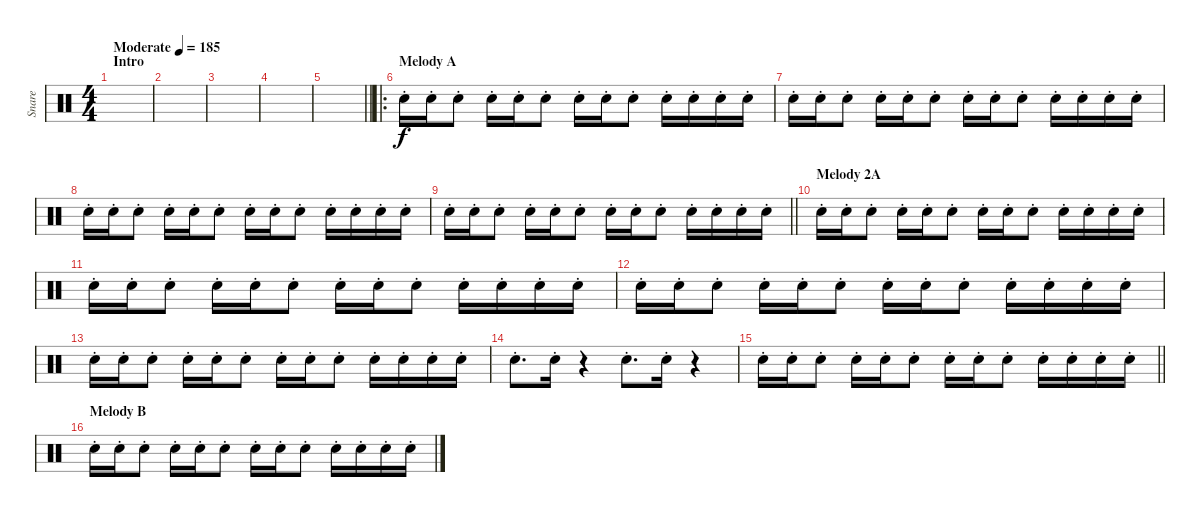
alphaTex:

\track ("Snare" "Snare") {instrument percussion}
\staff {score}
\articulation defaults
\ts (4 4)
\section ("" "Intro")
\tempo (185 "Moderate")
\clef neutral
\ks c
|
|
|
|
\barLineRight lightlight
|
\ro
\section ("" "Melody A")
"Electric Snare (hit)"{st}.16 "Electric Snare (hit)"{st}.16 "Electric Snare (hit)"{st}.8 "Electric Snare (hit)"{st}.16 "Electric Snare (hit)"{st}.16 "Electric Snare (hit)"{st}.8 "Electric Snare (hit)"{st}.16 "Electric Snare (hit)"{st}.16 "Electric Snare (hit)"{st}.8 "Electric Snare (hit)"{st}.16 "Electric Snare (hit)"{st}.16 "Electric Snare (hit)"{st}.16 "Electric Snare (hit)"{st}.16 |
"Electric Snare (hit)"{st}.16 "Electric Snare (hit)"{st}.16 "Electric Snare (hit)"{st}.8 "Electric Snare (hit)"{st}.16 "Electric Snare (hit)"{st}.16 "Electric Snare (hit)"{st}.8 "Electric Snare (hit)"{st}.16 "Electric Snare (hit)"{st}.16 "Electric Snare (hit)"{st}.8 "Electric Snare (hit)"{st}.16 "Electric Snare (hit)"{st}.16 "Electric Snare (hit)"{st}.16 "Electric Snare (hit)"{st}.16 |
"Electric Snare (hit)"{st}.16 "Electric Snare (hit)"{st}.16 "Electric Snare (hit)"{st}.8 "Electric Snare (hit)"{st}.16 "Electric Snare (hit)"{st}.16 "Electric Snare (hit)"{st}.8 "Electric Snare (hit)"{st}.16 "Electric Snare (hit)"{st}.16 "Electric Snare (hit)"{st}.8 "Electric Snare (hit)"{st}.16 "Electric Snare (hit)"{st}.16 "Electric Snare (hit)"{st}.16 "Electric Snare (hit)"{st}.16 |
\barLineRight lightlight "Electric Snare (hit)"{st}.16 "Electric Snare (hit)"{st}.16 "Electric Snare (hit)"{st}.8 "Electric Snare (hit)"{st}.16 "Electric Snare (hit)"{st}.16 "Electric Snare (hit)"{st}.8 "Electric Snare (hit)"{st}.16 "Electric Snare (hit)"{st}.16 "Electric Snare (hit)"{st}.8 "Electric Snare (hit)"{st}.16 "Electric Snare (hit)"{st}.16 "Electric Snare (hit)"{st}.16 "Electric Snare (hit)"{st}.16
|
\section ("" "Melody 2A")
"Electric Snare (hit)"{st}.16 "Electric Snare (hit)"{st}.16 "Electric Snare (hit)"{st}.8 "Electric Snare (hit)"{st}.16 "Electric Snare (hit)"{st}.16 "Electric Snare (hit)"{st}.8 "Electric Snare (hit)"{st}.16 "Electric Snare (hit)"{st}.16 "Electric Snare (hit)"{st}.8 "Electric Snare (hit)"{st}.16 "Electric Snare (hit)"{st}.16 "Electric Snare (hit)"{st}.16 "Electric Snare (hit)"{st}.16 |
"Electric Snare (hit)"{st}.16 "Electric Snare (hit)"{st}.16 "Electric Snare (hit)"{st}.8 "Electric Snare (hit)"{st}.16 "Electric Snare (hit)"{st}.16 "Electric Snare (hit)"{st}.8 "Electric Snare (hit)"{st}.16 "Electric Snare (hit)"{st}.16 "Electric Snare (hit)"{st}.8 "Electric Snare (hit)"{st}.16 "Electric Snare (hit)"{st}.16 "Electric Snare (hit)"{st}.16 "Electric Snare (hit)"{st}.16 |
"Electric Snare (hit)"{st}.16 "Electric Snare (hit)"{st}.16 "Electric Snare (hit)"{st}.8 "Electric Snare (hit)"{st}.16 "Electric Snare (hit)"{st}.16 "Electric Snare (hit)"{st}.8 "Electric Snare (hit)"{st}.16 "Electric Snare (hit)"{st}.16 "Electric Snare (hit)"{st}.8 "Electric Snare (hit)"{st}.16 "Electric Snare (hit)"{st}.16 "Electric Snare (hit)"{st}.16 "Electric Snare (hit)"{st}.16 |
"Electric Snare (hit)"{st}.16 "Electric Snare (hit)"{st}.16 "Electric Snare (hit)"{st}.8 "Electric Snare (hit)"{st}.16 "Electric Snare (hit)"{st}.16 "Electric Snare (hit)"{st}.8 "Electric Snare (hit)"{st}.16 "Electric Snare (hit)"{st}.16 "Electric Snare (hit)"{st}.8 "Electric Snare (hit)"{st}.16 "Electric Snare (hit)"{st}.16 "Electric Snare (hit)"{st}.16 "Electric Snare (hit)"{st}.16 |
"Electric Snare (hit)"{st}.8{d} "Electric Snare (hit)"{st}.16 r.4 "Electric Snare (hit)"{st}.8{d} "Electric Snare (hit)"{st}.16 r.4 |
\barLineRight lightlight "Electric Snare (hit)"{st}.16 "Electric Snare (hit)"{st}.16 "Electric Snare (hit)"{st}.8 "Electric Snare (hit)"{st}.16 "Electric Snare (hit)"{st}.16 "Electric Snare (hit)"{st}.8 "Electric Snare (hit)"{st}.16 "Electric Snare (hit)"{st}.16 "Electric Snare (hit)"{st}.8 "Electric Snare (hit)"{st}.16 "Electric Snare (hit)"{st}.16 "Electric Snare (hit)"{st}.16 "Electric Snare (hit)"{st}.16
|
\section ("" "Melody B")
"Electric Snare (hit)"{st}.16 "Electric Snare (hit)"{st}.16 "Electric Snare (hit)"{st}.8 "Electric Snare (hit)"{st}.16 "Electric Snare (hit)"{st}.16 "Electric Snare (hit)"{st}.8 "Electric Snare (hit)"{st}.16 "Electric Snare (hit)"{st}.16 "Electric Snare (hit)"{st}.8 "Electric Snare (hit)"{st}.16 "Electric Snare (hit)"{st}.16 "Electric Snare (hit)"{st}.16 "Electric Snare (hit)"{st}.16
